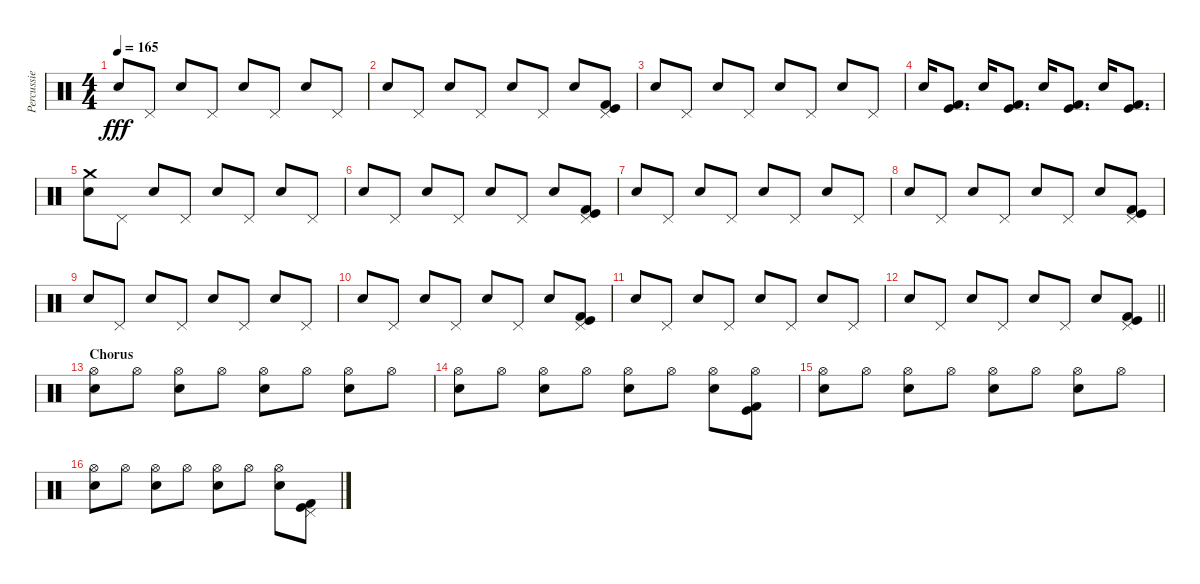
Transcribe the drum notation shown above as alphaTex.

\track ("Percussie" "Percussie") {instrument percussion}
\staff {score}
\articulation defaults
\ts (4 4)
\tempo 165
\clef neutral
\ks c "Snare (hit) 2".8{dy fff} "Pedal Hi-Hat (hit)".8 "Snare (hit) 2".8 "Pedal Hi-Hat (hit)".8 "Snare (hit) 2".8 "Pedal Hi-Hat (hit)".8 "Snare (hit) 2".8 "Pedal Hi-Hat (hit)".8
|
"Snare (hit) 2".8 "Pedal Hi-Hat (hit)".8 "Snare (hit) 2".8 "Pedal Hi-Hat (hit)".8 "Snare (hit) 2".8 "Pedal Hi-Hat (hit)".8 "Snare (hit) 2".8 ("Pedal Hi-Hat (hit)" "Kick (hit)" "Kick (hit) 2").8 |
"Snare (hit) 2".8 "Pedal Hi-Hat (hit)".8 "Snare (hit) 2".8 "Pedal Hi-Hat (hit)".8 "Snare (hit) 2".8 "Pedal Hi-Hat (hit)".8 "Snare (hit) 2".8 "Pedal Hi-Hat (hit)".8 |
"Snare (hit) 2".16 ("Kick (hit)" "Kick (hit) 2").8{d} "Snare (hit) 2".16 ("Kick (hit)" "Kick (hit) 2").8{d} "Snare (hit) 2".16 ("Kick (hit)" "Kick (hit) 2").8{d} "Snare (hit) 2".16 ("Kick (hit)" "Kick (hit) 2").8{d} |
("Crash medium (hit)" "Snare (hit) 2").8 "Pedal Hi-Hat (hit)".8 "Snare (hit) 2".8 "Pedal Hi-Hat (hit)".8 "Snare (hit) 2".8 "Pedal Hi-Hat (hit)".8 "Snare (hit) 2".8 "Pedal Hi-Hat (hit)".8 |
"Snare (hit) 2".8 "Pedal Hi-Hat (hit)".8 "Snare (hit) 2".8 "Pedal Hi-Hat (hit)".8 "Snare (hit) 2".8 "Pedal Hi-Hat (hit)".8 "Snare (hit) 2".8 ("Pedal Hi-Hat (hit)" "Kick (hit)" "Kick (hit) 2").8 |
"Snare (hit) 2".8 "Pedal Hi-Hat (hit)".8 "Snare (hit) 2".8 "Pedal Hi-Hat (hit)".8 "Snare (hit) 2".8 "Pedal Hi-Hat (hit)".8 "Snare (hit) 2".8 "Pedal Hi-Hat (hit)".8 |
"Snare (hit) 2".8 "Pedal Hi-Hat (hit)".8 "Snare (hit) 2".8 "Pedal Hi-Hat (hit)".8 "Snare (hit) 2".8 "Pedal Hi-Hat (hit)".8 "Snare (hit) 2".8 ("Pedal Hi-Hat (hit)" "Kick (hit)" "Kick (hit) 2").8 |
"Snare (hit) 2".8 "Pedal Hi-Hat (hit)".8 "Snare (hit) 2".8 "Pedal Hi-Hat (hit)".8 "Snare (hit) 2".8 "Pedal Hi-Hat (hit)".8 "Snare (hit) 2".8 "Pedal Hi-Hat (hit)".8 |
"Snare (hit) 2".8 "Pedal Hi-Hat (hit)".8 "Snare (hit) 2".8 "Pedal Hi-Hat (hit)".8 "Snare (hit) 2".8 "Pedal Hi-Hat (hit)".8 "Snare (hit) 2".8 ("Pedal Hi-Hat (hit)" "Kick (hit)" "Kick (hit) 2").8 |
"Snare (hit) 2".8 "Pedal Hi-Hat (hit)".8 "Snare (hit) 2".8 "Pedal Hi-Hat (hit)".8 "Snare (hit) 2".8 "Pedal Hi-Hat (hit)".8 "Snare (hit) 2".8 "Pedal Hi-Hat (hit)".8 |
\barLineRight lightlight "Snare (hit) 2".8 "Pedal Hi-Hat (hit)".8 "Snare (hit) 2".8 "Pedal Hi-Hat (hit)".8 "Snare (hit) 2".8 "Pedal Hi-Hat (hit)".8 "Snare (hit) 2".8
("Pedal Hi-Hat (hit)" "Kick (hit)" "Kick (hit) 2").8 |
\section ("" "Chorus")
("Hi-Hat (open)" "Snare (hit) 2").8 "Hi-Hat (open)".8 ("Hi-Hat (open)" "Snare (hit) 2").8 "Hi-Hat (open)".8 ("Hi-Hat (open)" "Snare (hit) 2").8 "Hi-Hat (open)".8 ("Hi-Hat (open)" "Snare (hit) 2").8 "Hi-Hat (open)".8 |
("Hi-Hat (open)" "Snare (hit) 2").8 "Hi-Hat (open)".8 ("Hi-Hat (open)" "Snare (hit) 2").8 "Hi-Hat (open)".8 ("Hi-Hat (open)" "Snare (hit) 2").8 "Hi-Hat (open)".8 ("Hi-Hat (open)" "Snare (hit) 2").8 ("Hi-Hat (open)" "Kick (hit)" "Kick (hit) 2").8 |
("Hi-Hat (open)" "Snare (hit) 2").8 "Hi-Hat (open)".8 ("Hi-Hat (open)" "Snare (hit) 2").8 "Hi-Hat (open)".8 ("Hi-Hat (open)" "Snare (hit) 2").8 "Hi-Hat (open)".8 ("Hi-Hat (open)" "Snare (hit) 2").8 "Hi-Hat (open)".8 |
("Hi-Hat (open)" "Snare (hit) 2").8 "Hi-Hat (open)".8 ("Hi-Hat (open)" "Snare (hit) 2").8 "Hi-Hat (open)".8 ("Hi-Hat (open)" "Snare (hit) 2").8 "Hi-Hat (open)".8 ("Hi-Hat (open)" "Snare (hit) 2").8 ("Pedal Hi-Hat (hit)" "Kick (hit)" "Kick (hit) 2").8
